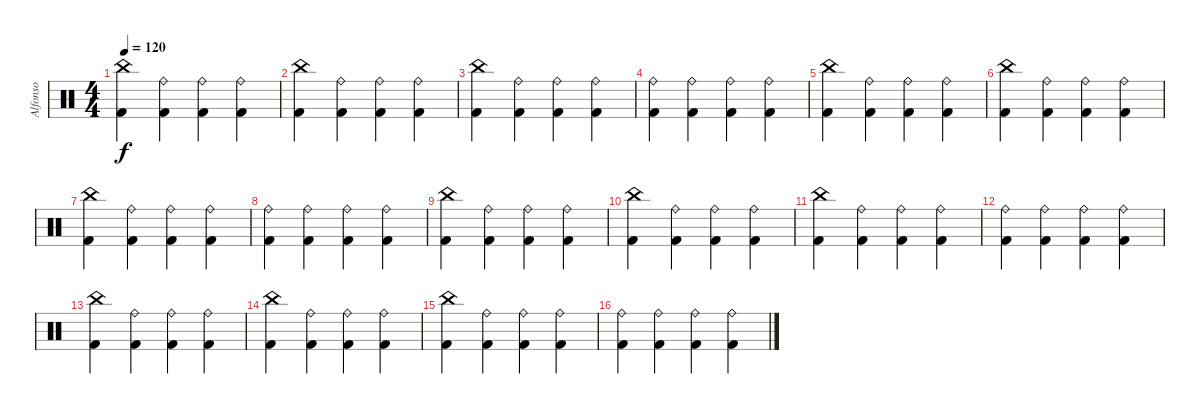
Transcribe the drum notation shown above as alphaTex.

\track ("Alfonso" "Alfonso") {instrument percussion}
\staff {score}
\articulation defaults
\ts (4 4)
\tempo 120
\clef neutral
\ks c
("China (hit)" "Kick (hit) 2").4{dy f} ("Ride (bell)" "Kick (hit) 2").4 ("Ride (bell)" "Kick (hit) 2").4 ("Ride (bell)" "Kick (hit) 2").4 |
("China (hit)" "Kick (hit) 2").4 ("Ride (bell)" "Kick (hit) 2").4 ("Ride (bell)" "Kick (hit) 2").4 ("Ride (bell)" "Kick (hit) 2").4 |
("China (hit)" "Kick (hit) 2").4 ("Ride (bell)" "Kick (hit) 2").4 ("Ride (bell)" "Kick (hit) 2").4 ("Ride (bell)" "Kick (hit) 2").4 |
("Ride (bell)" "Kick (hit) 2").4 ("Ride (bell)" "Kick (hit) 2").4 ("Ride (bell)" "Kick (hit) 2").4 ("Ride (bell)" "Kick (hit) 2").4 |
("China (hit)" "Kick (hit) 2").4 ("Ride (bell)" "Kick (hit) 2").4 ("Ride (bell)" "Kick (hit) 2").4 ("Ride (bell)" "Kick (hit) 2").4 |
("China (hit)" "Kick (hit) 2").4 ("Ride (bell)" "Kick (hit) 2").4 ("Ride (bell)" "Kick (hit) 2").4 ("Ride (bell)" "Kick (hit) 2").4 |
("China (hit)" "Kick (hit) 2").4 ("Ride (bell)" "Kick (hit) 2").4 ("Ride (bell)" "Kick (hit) 2").4 ("Ride (bell)" "Kick (hit) 2").4 |
("Ride (bell)" "Kick (hit) 2").4 ("Ride (bell)" "Kick (hit) 2").4 ("Ride (bell)" "Kick (hit) 2").4 ("Ride (bell)" "Kick (hit) 2").4 |
("China (hit)" "Kick (hit) 2").4 ("Ride (bell)" "Kick (hit) 2").4 ("Ride (bell)" "Kick (hit) 2").4 ("Ride (bell)" "Kick (hit) 2").4 |
("China (hit)" "Kick (hit) 2").4 ("Ride (bell)" "Kick (hit) 2").4 ("Ride (bell)" "Kick (hit) 2").4 ("Ride (bell)" "Kick (hit) 2").4 |
("China (hit)" "Kick (hit) 2").4 ("Ride (bell)" "Kick (hit) 2").4 ("Ride (bell)" "Kick (hit) 2").4 ("Ride (bell)" "Kick (hit) 2").4 |
("Ride (bell)" "Kick (hit) 2").4 ("Ride (bell)" "Kick (hit) 2").4 ("Ride (bell)" "Kick (hit) 2").4 ("Ride (bell)" "Kick (hit) 2").4 |
("China (hit)" "Kick (hit) 2").4 ("Ride (bell)" "Kick (hit) 2").4 ("Ride (bell)" "Kick (hit) 2").4 ("Ride (bell)" "Kick (hit) 2").4 |
("China (hit)" "Kick (hit) 2").4 ("Ride (bell)" "Kick (hit) 2").4 ("Ride (bell)" "Kick (hit) 2").4 ("Ride (bell)" "Kick (hit) 2").4 |
("China (hit)" "Kick (hit) 2").4 ("Ride (bell)" "Kick (hit) 2").4 ("Ride (bell)" "Kick (hit) 2").4 ("Ride (bell)" "Kick (hit) 2").4 |
("Ride (bell)" "Kick (hit) 2").4 ("Ride (bell)" "Kick (hit) 2").4 ("Ride (bell)" "Kick (hit) 2").4 ("Ride (bell)" "Kick (hit) 2").4
